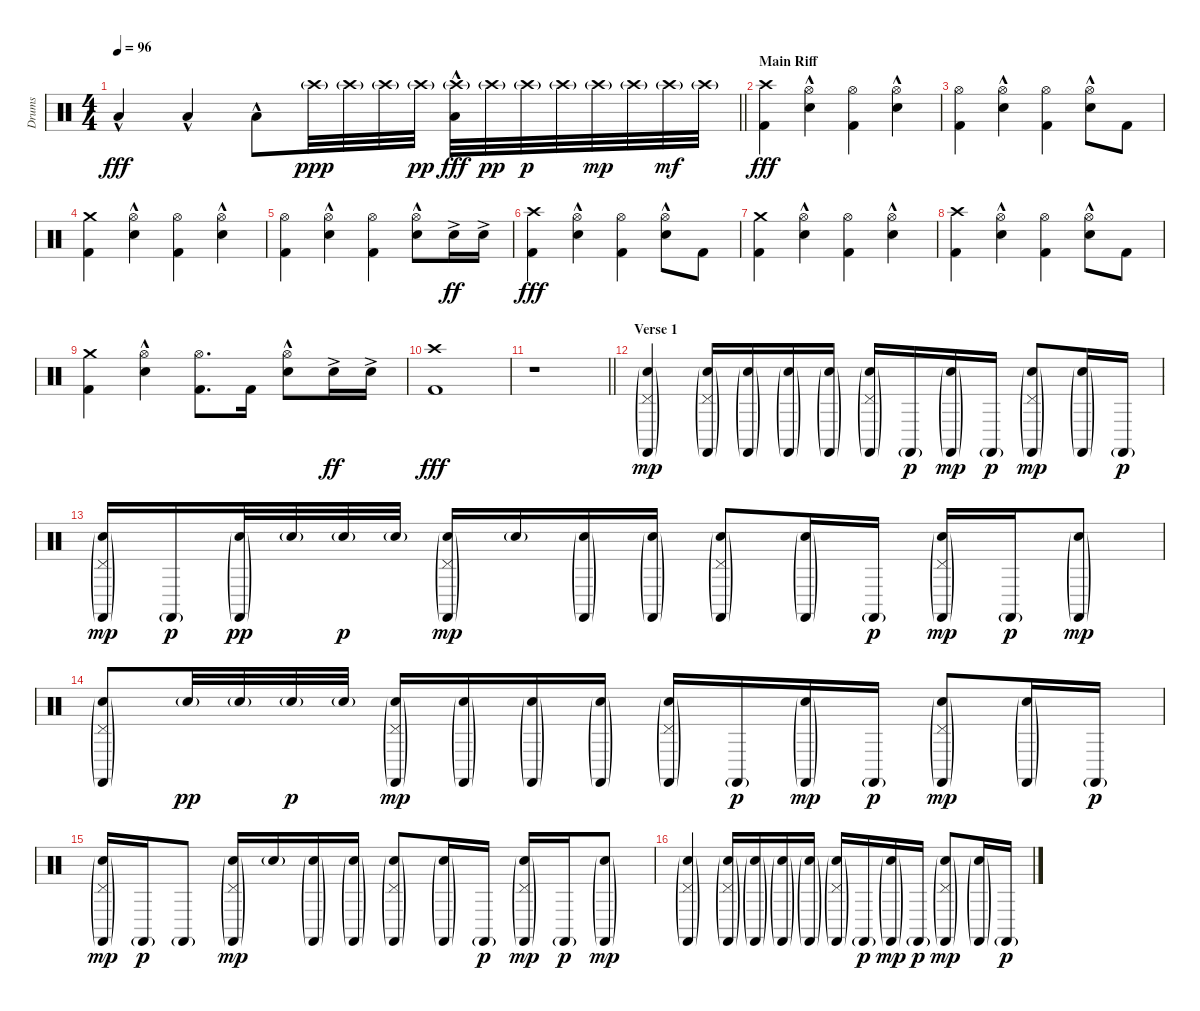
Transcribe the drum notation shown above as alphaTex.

\track ("Drums" "Drums") {instrument percussion}
\staff {score}
\articulation defaults
\ts (4 4)
\tempo 96
\clef neutral
\barLineRight lightlight
\ks c "Low Floor Tom (hit)"{hac}.4{dy fff} "Low Floor Tom (hit)"{hac}.4 "Low Floor Tom (hit)"{hac}.8 "Crash high (hit)"{g}.32{dy ppp} "Crash high (hit)"{g}.32 "Crash high (hit)"{g}.32 "Crash high (hit)"{g}.32{dy pp}
("Crash high (hit)"{g} "Low Floor Tom (hit)"{hac}).32{dy fff} "Crash high (hit)"{g}.32{dy pp} "Crash high (hit)"{g}.32{dy p} "Crash high (hit)"{g}.32 "Crash high (hit)"{g}.32{dy mp} "Crash high (hit)"{g}.32 "Crash high (hit)"{g}.32{dy mf} "Crash high (hit)"{g}.32 |
\section ("" "Main Riff")
("Crash high (hit)" "Kick (hit) 2").4{dy fff} ("Hi-Hat (open)" "Electric Snare (hit)"{hac}).4 ("Hi-Hat (open)" "Kick (hit) 2").4 ("Hi-Hat (open)" "Electric Snare (hit)"{hac}).4 |
("Hi-Hat (open)" "Kick (hit) 2").4 ("Hi-Hat (open)" "Electric Snare (hit)"{hac}).4 ("Hi-Hat (open)" "Kick (hit) 2").4 ("Hi-Hat (open)" "Electric Snare (hit)"{hac}).8 "Kick (hit) 2".8 |
("Crash medium (hit)" "Kick (hit) 2").4 ("Hi-Hat (open)" "Electric Snare (hit)"{hac}).4 ("Hi-Hat (open)" "Kick (hit) 2").4 ("Hi-Hat (open)" "Electric Snare (hit)"{hac}).4 |
("Hi-Hat (open)" "Kick (hit) 2").4 ("Hi-Hat (open)" "Electric Snare (hit)"{hac}).4 ("Hi-Hat (open)" "Kick (hit) 2").4 ("Hi-Hat (open)" "Electric Snare (hit)"{hac}).8 "Electric Snare (hit)"{ac}.16{dy ff} "Electric Snare (hit)"{ac}.16 |
("Crash high (hit)" "Kick (hit) 2").4{dy fff} ("Hi-Hat (open)" "Electric Snare (hit)"{hac}).4 ("Hi-Hat (open)" "Kick (hit) 2").4 ("Hi-Hat (open)" "Electric Snare (hit)"{hac}).8 "Kick (hit) 2".8 |
("Crash medium (hit)" "Kick (hit) 2").4 ("Hi-Hat (open)" "Electric Snare (hit)"{hac}).4 ("Hi-Hat (open)" "Kick (hit) 2").4 ("Hi-Hat (open)" "Electric Snare (hit)"{hac}).4 |
("Crash high (hit)" "Kick (hit) 2").4 ("Hi-Hat (open)" "Electric Snare (hit)"{hac}).4 ("Hi-Hat (open)" "Kick (hit) 2").4 ("Hi-Hat (open)" "Electric Snare (hit)"{hac}).8 "Kick (hit) 2".8 |
("Crash medium (hit)" "Kick (hit) 2").4 ("Hi-Hat (open)" "Electric Snare (hit)"{hac}).4 ("Hi-Hat (open)" "Kick (hit) 2").8{d} "Kick (hit) 2".16 ("Hi-Hat (open)" "Electric Snare (hit)"{hac}).8 "Electric Snare (hit)"{ac}.16{dy ff} "Electric Snare (hit)"{ac}.16 |
("Crash high (hit)" "Kick (hit) 2").1{dy fff} |
\barLineRight lightlight
r.1 |
\section ("" "Verse 1")
("Pedal Hi-Hat (hit)"{g} "Castanets (hit)"{g} "Snare (hit) 2"{g}).4{dy mp volume 8} ("Pedal Hi-Hat (hit)"{g} "Castanets (hit)"{g} "Snare (hit) 2"{g}).16 ("Castanets (hit)"{g} "Snare (hit) 2"{g}).16 ("Castanets (hit)"{g} "Snare (hit) 2"{g}).16 ("Castanets (hit)"{g} "Snare (hit) 2"{g}).16 ("Pedal Hi-Hat (hit)"{g} "Castanets (hit)"{g} "Snare (hit) 2"{g}).16 "Castanets (hit)"{g}.16{dy p} ("Castanets (hit)"{g} "Snare (hit) 2"{g}).16{dy mp} "Castanets (hit)"{g}.16{dy p} ("Pedal Hi-Hat (hit)"{g} "Castanets (hit)"{g} "Snare (hit) 2"{g}).8{dy mp} ("Castanets (hit)"{g} "Snare (hit) 2"{g}).16 "Castanets (hit)"{g}.16{dy p} |
("Pedal Hi-Hat (hit)"{g} "Castanets (hit)"{g} "Snare (hit) 2"{g}).16{dy mp} "Castanets (hit)"{g}.16{dy p} ("Castanets (hit)"{g} "Snare (hit) 2"{g}).32{dy pp} "Snare (hit) 2"{g}.32 "Snare (hit) 2"{g}.32{dy p} "Snare (hit) 2"{g}.32 ("Pedal Hi-Hat (hit)"{g} "Castanets (hit)"{g} "Snare (hit) 2"{g}).16{dy mp} "Snare (hit) 2"{g}.16 ("Castanets (hit)"{g} "Snare (hit) 2"{g}).16 ("Castanets (hit)"{g} "Snare (hit) 2"{g}).16 ("Pedal Hi-Hat (hit)"{g} "Castanets (hit)"{g} "Snare (hit) 2"{g}).8 ("Castanets (hit)"{g} "Snare (hit) 2"{g}).16 "Castanets (hit)"{g}.16{dy p} ("Pedal Hi-Hat (hit)"{g} "Castanets (hit)"{g} "Snare (hit) 2"{g}).16{dy mp} "Castanets (hit)"{g}.16{dy p} ("Castanets (hit)"{g} "Snare (hit) 2"{g}).8{dy mp} |
("Pedal Hi-Hat (hit)"{g} "Castanets (hit)"{g} "Snare (hit) 2"{g}).8 "Snare (hit) 2"{g}.32{dy pp} "Snare (hit) 2"{g}.32 "Snare (hit) 2"{g}.32{dy p} "Snare (hit) 2"{g}.32 ("Pedal Hi-Hat (hit)"{g} "Castanets (hit)"{g} "Snare (hit) 2"{g}).16{dy mp} ("Castanets (hit)"{g} "Snare (hit) 2"{g}).16 ("Castanets (hit)"{g} "Snare (hit) 2"{g}).16 ("Castanets (hit)"{g} "Snare (hit) 2"{g}).16 ("Pedal Hi-Hat (hit)"{g} "Castanets (hit)"{g} "Snare (hit) 2"{g}).16 "Castanets (hit)"{g}.16{dy p} ("Castanets (hit)"{g} "Snare (hit) 2"{g}).16{dy mp} "Castanets (hit)"{g}.16{dy p} ("Pedal Hi-Hat (hit)"{g} "Castanets (hit)"{g} "Snare (hit) 2"{g}).8{dy mp} ("Castanets (hit)"{g} "Snare (hit) 2"{g}).16 "Castanets (hit)"{g}.16{dy p} |
("Pedal Hi-Hat (hit)"{g} "Castanets (hit)"{g} "Snare (hit) 2"{g}).16{dy mp} "Castanets (hit)"{g}.16{dy p} "Castanets (hit)"{g}.8 ("Pedal Hi-Hat (hit)"{g} "Castanets (hit)"{g} "Snare (hit) 2"{g}).16{dy mp} "Snare (hit) 2"{g}.16 ("Castanets (hit)"{g} "Snare (hit) 2"{g}).16 ("Castanets (hit)"{g} "Snare (hit) 2"{g}).16 ("Pedal Hi-Hat (hit)"{g} "Castanets (hit)"{g} "Snare (hit) 2"{g}).8 ("Castanets (hit)"{g} "Snare (hit) 2"{g}).16 "Castanets (hit)"{g}.16{dy p} ("Pedal Hi-Hat (hit)"{g} "Castanets (hit)"{g} "Snare (hit) 2"{g}).16{dy mp} "Castanets (hit)"{g}.16{dy p} ("Castanets (hit)"{g} "Snare (hit) 2"{g}).8{dy mp} |
("Pedal Hi-Hat (hit)"{g} "Castanets (hit)"{g} "Snare (hit) 2"{g}).4 ("Pedal Hi-Hat (hit)"{g} "Castanets (hit)"{g} "Snare (hit) 2"{g}).16 ("Castanets (hit)"{g} "Snare (hit) 2"{g}).16 ("Castanets (hit)"{g} "Snare (hit) 2"{g}).16 ("Castanets (hit)"{g} "Snare (hit) 2"{g}).16 ("Pedal Hi-Hat (hit)"{g} "Castanets (hit)"{g} "Snare (hit) 2"{g}).16 "Castanets (hit)"{g}.16{dy p} ("Castanets (hit)"{g} "Snare (hit) 2"{g}).16{dy mp} "Castanets (hit)"{g}.16{dy p} ("Pedal Hi-Hat (hit)"{g} "Castanets (hit)"{g} "Snare (hit) 2"{g}).8{dy mp} ("Castanets (hit)"{g} "Snare (hit) 2"{g}).16 "Castanets (hit)"{g}.16{dy p}
